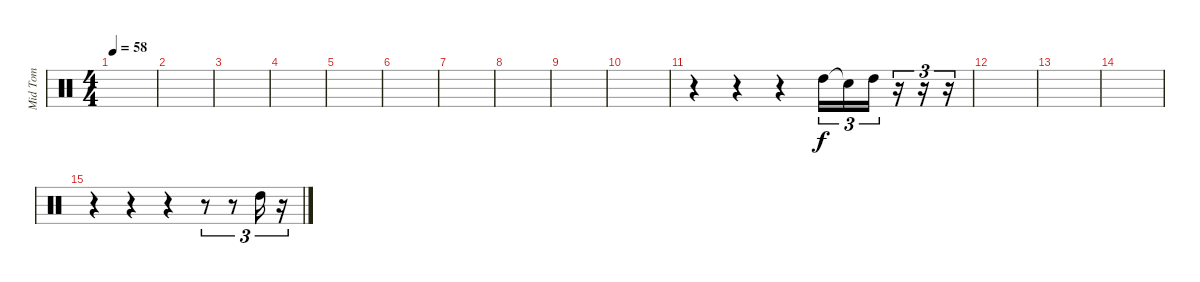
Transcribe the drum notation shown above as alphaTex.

\track ("Mid Tom" "Mid Tom") {instrument percussion}
\staff {score}
\articulation defaults
\ts (4 4)
\tempo 58
\clef neutral
\ks c
|
|
|
|
|
|
|
|
|
|
r.4 r.4 r.4 "High Tom (hit)".16{tu (3 2)} "Snare (hit)"{t}.16{tu (3 2)} "High Tom (hit)".16{tu (3 2)} r.16{tu (3 2)} r.16{tu (3 2)} r.16{tu (3 2)} |
|
|
|
r.4 r.4 r.4 r.8{tu (3 2)} r.8{tu (3 2)} "High Tom (hit)".16{tu (3 2)} r.16{tu (3 2)}
